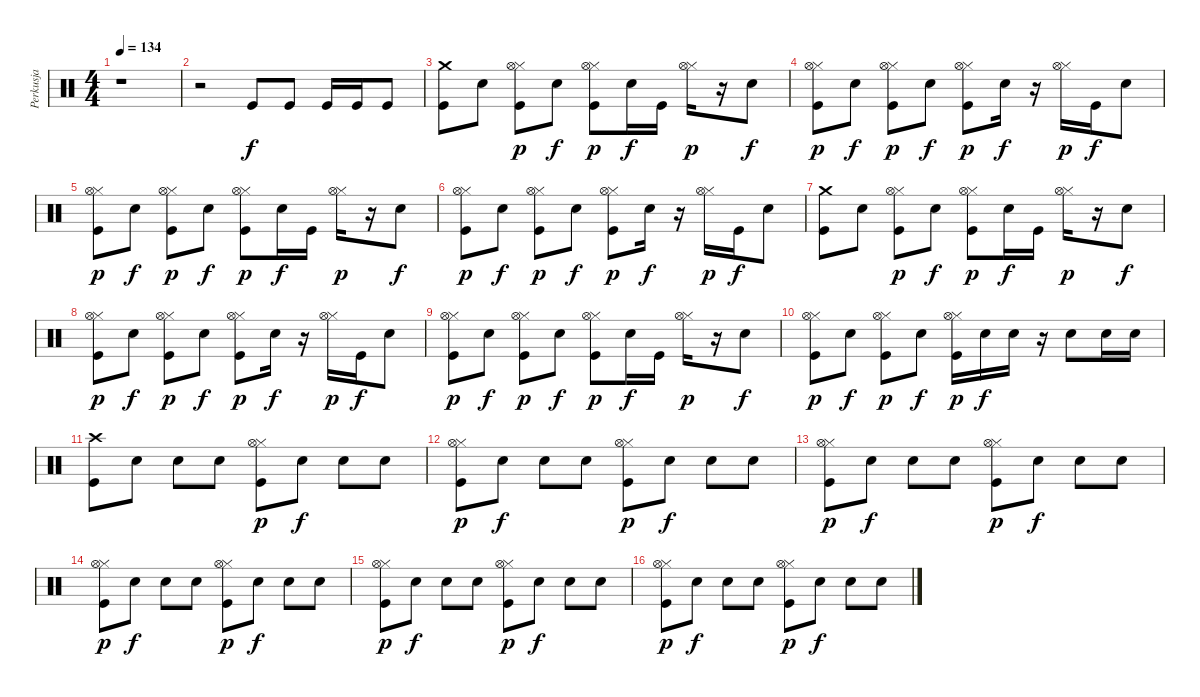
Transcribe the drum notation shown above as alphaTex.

\track ("Perkusja" "Perkusja") {instrument percussion}
\staff {score}
\articulation defaults
\ts (4 4)
\tempo 134
\clef neutral
\ks c
r.1{dy f} |
r.2 "Kick (hit)".8 "Kick (hit)".8 "Kick (hit)".16 "Kick (hit)".16 "Kick (hit)".8 |
("Crash medium (hit)" "Kick (hit)").8 "Electric Snare (hit)".8 ("Hi-Hat (closed)" "Hi-Hat (open)" "Kick (hit)").8{dy p} "Electric Snare (hit)".8{dy f} ("Hi-Hat (closed)" "Hi-Hat (open)" "Kick (hit)").8{dy p} "Electric Snare (hit)".16{dy f} "Kick (hit)".16 ("Hi-Hat (closed)" "Hi-Hat (open)").16{dy p} r.16 "Electric Snare (hit)".8{dy f} |
("Hi-Hat (closed)" "Hi-Hat (open)" "Kick (hit)").8{dy p} "Electric Snare (hit)".8{dy f} ("Hi-Hat (closed)" "Hi-Hat (open)" "Kick (hit)").8{dy p} "Electric Snare (hit)".8{dy f} ("Hi-Hat (closed)" "Hi-Hat (open)" "Kick (hit)").8{dy p} "Electric Snare (hit)".16{dy f} r.16 ("Hi-Hat (closed)" "Hi-Hat (open)").16{dy p} "Kick (hit)".16{dy f} "Electric Snare (hit)".8 |
("Hi-Hat (closed)" "Hi-Hat (open)" "Kick (hit)").8{dy p} "Electric Snare (hit)".8{dy f} ("Hi-Hat (closed)" "Hi-Hat (open)" "Kick (hit)").8{dy p} "Electric Snare (hit)".8{dy f} ("Hi-Hat (closed)" "Hi-Hat (open)" "Kick (hit)").8{dy p} "Electric Snare (hit)".16{dy f} "Kick (hit)".16 ("Hi-Hat (closed)" "Hi-Hat (open)").16{dy p} r.16 "Electric Snare (hit)".8{dy f} |
("Hi-Hat (closed)" "Hi-Hat (open)" "Kick (hit)").8{dy p} "Electric Snare (hit)".8{dy f} ("Hi-Hat (closed)" "Hi-Hat (open)" "Kick (hit)").8{dy p} "Electric Snare (hit)".8{dy f} ("Hi-Hat (closed)" "Hi-Hat (open)" "Kick (hit)").8{dy p} "Electric Snare (hit)".16{dy f} r.16 ("Hi-Hat (closed)" "Hi-Hat (open)").16{dy p} "Kick (hit)".16{dy f} "Electric Snare (hit)".8 |
("Crash medium (hit)" "Kick (hit)").8 "Electric Snare (hit)".8 ("Hi-Hat (closed)" "Hi-Hat (open)" "Kick (hit)").8{dy p} "Electric Snare (hit)".8{dy f} ("Hi-Hat (closed)" "Hi-Hat (open)" "Kick (hit)").8{dy p} "Electric Snare (hit)".16{dy f} "Kick (hit)".16 ("Hi-Hat (closed)" "Hi-Hat (open)").16{dy p} r.16 "Electric Snare (hit)".8{dy f} |
("Hi-Hat (closed)" "Hi-Hat (open)" "Kick (hit)").8{dy p} "Electric Snare (hit)".8{dy f} ("Hi-Hat (closed)" "Hi-Hat (open)" "Kick (hit)").8{dy p} "Electric Snare (hit)".8{dy f} ("Hi-Hat (closed)" "Hi-Hat (open)" "Kick (hit)").8{dy p} "Electric Snare (hit)".16{dy f} r.16 ("Hi-Hat (closed)" "Hi-Hat (open)").16{dy p} "Kick (hit)".16{dy f} "Electric Snare (hit)".8 |
("Hi-Hat (closed)" "Hi-Hat (open)" "Kick (hit)").8{dy p} "Electric Snare (hit)".8{dy f} ("Hi-Hat (closed)" "Hi-Hat (open)" "Kick (hit)").8{dy p} "Electric Snare (hit)".8{dy f} ("Hi-Hat (closed)" "Hi-Hat (open)" "Kick (hit)").8{dy p} "Electric Snare (hit)".16{dy f} "Kick (hit)".16 ("Hi-Hat (closed)" "Hi-Hat (open)").16{dy p} r.16 "Electric Snare (hit)".8{dy f} |
("Hi-Hat (closed)" "Hi-Hat (open)" "Kick (hit)").8{dy p} "Electric Snare (hit)".8{dy f} ("Hi-Hat (closed)" "Hi-Hat (open)" "Kick (hit)").8{dy p} "Electric Snare (hit)".8{dy f} ("Hi-Hat (closed)" "Hi-Hat (open)" "Kick (hit)").16{dy p} "Electric Snare (hit)".16{dy f} "Electric Snare (hit)".16 r.16 "Electric Snare (hit)".8 "Electric Snare (hit)".16 "Electric Snare (hit)".16 |
("Crash high (hit)" "Kick (hit)").8 "Electric Snare (hit)".8 "Electric Snare (hit)".8 "Electric Snare (hit)".8 ("Hi-Hat (closed)" "Hi-Hat (open)" "Kick (hit)").8{dy p} "Electric Snare (hit)".8{dy f} "Electric Snare (hit)".8 "Electric Snare (hit)".8 |
("Hi-Hat (closed)" "Hi-Hat (open)" "Kick (hit)").8{dy p} "Electric Snare (hit)".8{dy f} "Electric Snare (hit)".8 "Electric Snare (hit)".8 ("Hi-Hat (closed)" "Hi-Hat (open)" "Kick (hit)").8{dy p} "Electric Snare (hit)".8{dy f} "Electric Snare (hit)".8 "Electric Snare (hit)".8 |
("Hi-Hat (closed)" "Hi-Hat (open)" "Kick (hit)").8{dy p} "Electric Snare (hit)".8{dy f} "Electric Snare (hit)".8 "Electric Snare (hit)".8 ("Hi-Hat (closed)" "Hi-Hat (open)" "Kick (hit)").8{dy p} "Electric Snare (hit)".8{dy f} "Electric Snare (hit)".8 "Electric Snare (hit)".8 |
("Hi-Hat (closed)" "Hi-Hat (open)" "Kick (hit)").8{dy p} "Electric Snare (hit)".8{dy f} "Electric Snare (hit)".8 "Electric Snare (hit)".8 ("Hi-Hat (closed)" "Hi-Hat (open)" "Kick (hit)").8{dy p} "Electric Snare (hit)".8{dy f} "Electric Snare (hit)".8 "Electric Snare (hit)".8 |
("Hi-Hat (closed)" "Hi-Hat (open)" "Kick (hit)").8{dy p} "Electric Snare (hit)".8{dy f} "Electric Snare (hit)".8 "Electric Snare (hit)".8 ("Hi-Hat (closed)" "Hi-Hat (open)" "Kick (hit)").8{dy p} "Electric Snare (hit)".8{dy f} "Electric Snare (hit)".8 "Electric Snare (hit)".8 |
("Hi-Hat (closed)" "Hi-Hat (open)" "Kick (hit)").8{dy p} "Electric Snare (hit)".8{dy f} "Electric Snare (hit)".8 "Electric Snare (hit)".8 ("Hi-Hat (closed)" "Hi-Hat (open)" "Kick (hit)").8{dy p} "Electric Snare (hit)".8{dy f} "Electric Snare (hit)".8 "Electric Snare (hit)".8
